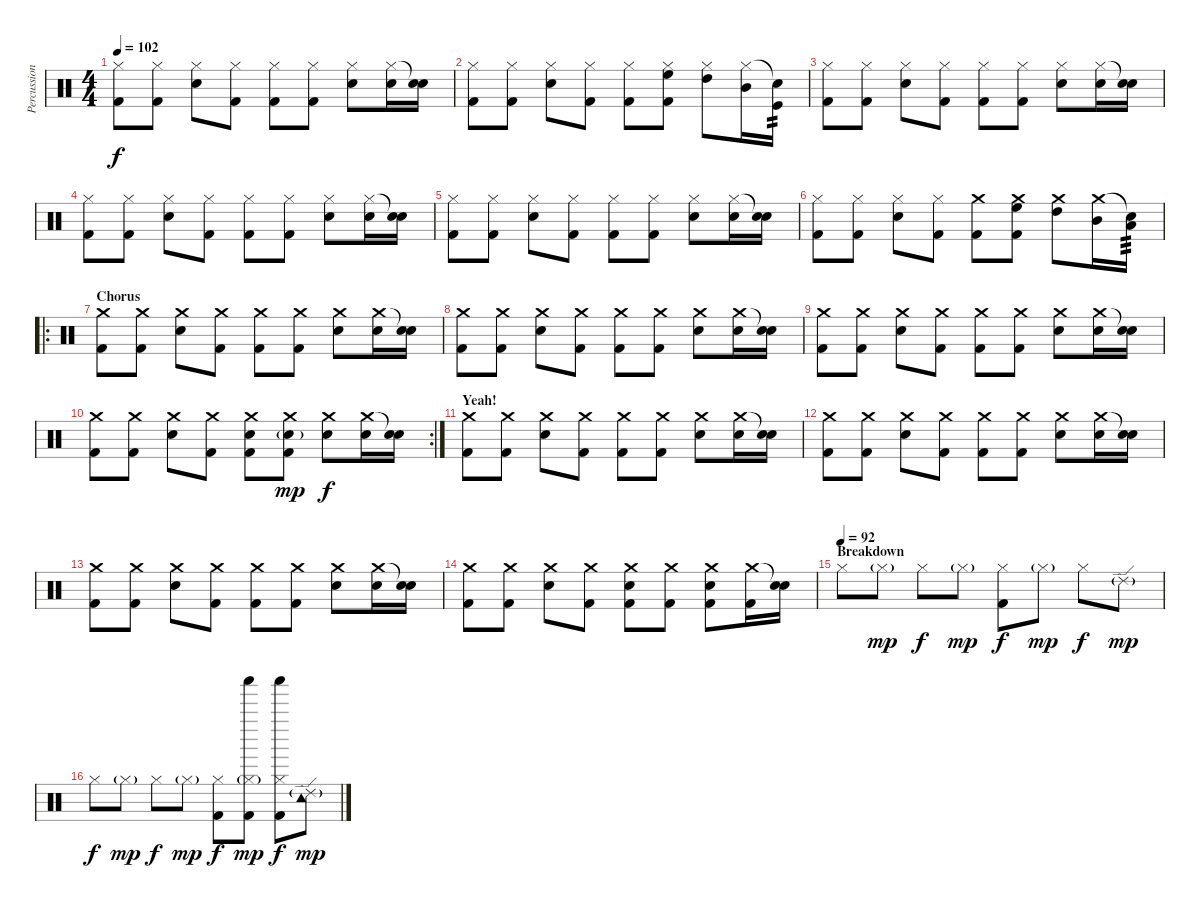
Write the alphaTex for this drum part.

\track ("Percussion" "Percussion") {instrument percussion}
\staff {score}
\articulation defaults
\ts (4 4)
\tempo 102
\clef neutral
\ks c
("Hi-Hat (closed)" "Kick (hit) 2").8{dy f} ("Hi-Hat (closed)" "Kick (hit) 2").8 ("Hi-Hat (closed)" "Snare (hit) 2").8 ("Hi-Hat (closed)" "Kick (hit) 2"{tr (36 16)}).8 ("Hi-Hat (closed)" "Kick (hit) 2").8 ("Hi-Hat (closed)" "Kick (hit) 2").8 ("Hi-Hat (closed)" "Snare (hit) 2").8 ("Hi-Hat (closed)" "Snare (hit) 2").16 ("Snare (hit)"{t} "Snare (hit) 2").16 |
("Hi-Hat (closed)" "Kick (hit) 2").8 ("Hi-Hat (closed)" "Kick (hit) 2").8 ("Hi-Hat (closed)" "Snare (hit) 2").8 ("Hi-Hat (closed)" "Kick (hit) 2"{tr (36 16)}).8 ("Hi-Hat (closed)" "Kick (hit) 2").8 ("Hi-Hat (closed)" "High Floor Tom (hit)" "Kick (hit) 2").8 ("Hi-Hat (closed)" "High Tom (hit)").8 ("Hi-Hat (closed)" "Mid Tom (hit)").16 ("Snare (hit)"{t} "Kick (hit)").16{tp 2} |
("Hi-Hat (closed)" "Kick (hit) 2").8 ("Hi-Hat (closed)" "Kick (hit) 2").8 ("Hi-Hat (closed)" "Snare (hit) 2").8 ("Hi-Hat (closed)" "Kick (hit) 2"{tr (36 16)}).8 ("Hi-Hat (closed)" "Kick (hit) 2").8 ("Hi-Hat (closed)" "Kick (hit) 2").8 ("Hi-Hat (closed)" "Snare (hit) 2").8 ("Hi-Hat (closed)" "Snare (hit) 2").16 ("Snare (hit)"{t} "Snare (hit) 2").16 |
("Hi-Hat (closed)" "Kick (hit) 2").8 ("Hi-Hat (closed)" "Kick (hit) 2").8 ("Hi-Hat (closed)" "Snare (hit) 2").8 ("Hi-Hat (closed)" "Kick (hit) 2"{tr (36 16)}).8 ("Hi-Hat (closed)" "Kick (hit) 2").8 ("Hi-Hat (closed)" "Kick (hit) 2").8 ("Hi-Hat (closed)" "Snare (hit) 2").8 ("Hi-Hat (closed)" "Snare (hit) 2").16 ("Snare (hit)"{t} "Snare (hit) 2").16 |
("Hi-Hat (closed)" "Kick (hit) 2").8 ("Hi-Hat (closed)" "Kick (hit) 2").8 ("Hi-Hat (closed)" "Snare (hit) 2").8 ("Hi-Hat (closed)" "Kick (hit) 2"{tr (36 16)}).8 ("Hi-Hat (closed)" "Kick (hit) 2").8 ("Hi-Hat (closed)" "Kick (hit) 2").8 ("Hi-Hat (closed)" "Snare (hit) 2").8 ("Hi-Hat (closed)" "Snare (hit) 2").16 ("Snare (hit)"{t} "Snare (hit) 2").16 |
("Hi-Hat (closed)" "Kick (hit) 2").8 ("Hi-Hat (closed)" "Kick (hit) 2").8 ("Hi-Hat (closed)" "Snare (hit) 2").8 ("Hi-Hat (closed)" "Kick (hit) 2"{tr (36 16)}).8 ("Crash medium (hit)" "Kick (hit) 2").8 ("Crash medium (hit)" "High Floor Tom (hit)" "Kick (hit) 2").8 ("Crash medium (hit)" "High Tom (hit)").8 ("Crash medium (hit)" "Mid Tom (hit)").16 ("Snare (hit)"{t} "Low Tom (hit)").16{tp 3} |
\ro
\section ("" "Chorus")
("Crash medium (hit)" "Kick (hit) 2").8 ("Crash medium (hit)" "Kick (hit) 2").8 ("Crash medium (hit)" "Snare (hit) 2").8 ("Crash medium (hit)" "Kick (hit) 2"{tr (36 16)}).8 ("Crash medium (hit)" "Kick (hit) 2").8 ("Crash medium (hit)" "Kick (hit) 2").8 ("Crash medium (hit)" "Snare (hit) 2").8 ("Crash medium (hit)" "Snare (hit) 2").16 ("Snare (hit)"{t} "Snare (hit) 2").16 |
("Crash medium (hit)" "Kick (hit) 2").8 ("Crash medium (hit)" "Kick (hit) 2").8 ("Crash medium (hit)" "Snare (hit) 2").8 ("Crash medium (hit)" "Kick (hit) 2"{tr (36 16)}).8 ("Crash medium (hit)" "Kick (hit) 2").8 ("Crash medium (hit)" "Kick (hit) 2").8 ("Crash medium (hit)" "Snare (hit) 2").8 ("Crash medium (hit)" "Snare (hit) 2").16 ("Snare (hit)"{t} "Snare (hit) 2").16 |
("Crash medium (hit)" "Kick (hit) 2").8 ("Crash medium (hit)" "Kick (hit) 2").8 ("Crash medium (hit)" "Snare (hit) 2").8 ("Crash medium (hit)" "Kick (hit) 2"{tr (36 16)}).8 ("Crash medium (hit)" "Kick (hit) 2").8 ("Crash medium (hit)" "Kick (hit) 2").8 ("Crash medium (hit)" "Snare (hit) 2").8 ("Crash medium (hit)" "Snare (hit) 2").16 ("Snare (hit)"{t} "Snare (hit) 2").16 |
\rc 2
("Crash medium (hit)" "Kick (hit) 2").8 ("Crash medium (hit)" "Kick (hit) 2").8 ("Crash medium (hit)" "Snare (hit) 2").8 ("Crash medium (hit)" "Kick (hit) 2"{tr (36 16)}).8 ("Crash medium (hit)" "Snare (hit) 2" "Kick (hit) 2").8 ("Crash medium (hit)" "Snare (hit) 2"{tr (38 16) g} "Kick (hit) 2").8{dy mp} ("Crash medium (hit)" "Snare (hit) 2").8{dy f} ("Crash medium (hit)" "Snare (hit) 2").16 ("Snare (hit)"{t} "Snare (hit) 2").16 |
\section ("" "Yeah!")
("Crash medium (hit)" "Kick (hit) 2").8 ("Crash medium (hit)" "Kick (hit) 2").8 ("Crash medium (hit)" "Snare (hit) 2").8 ("Crash medium (hit)" "Kick (hit) 2"{tr (36 16)}).8 ("Crash medium (hit)" "Kick (hit) 2").8 ("Crash medium (hit)" "Kick (hit) 2").8 ("Crash medium (hit)" "Snare (hit) 2").8 ("Crash medium (hit)" "Snare (hit) 2").16 ("Snare (hit)"{t} "Snare (hit) 2").16 |
("Crash medium (hit)" "Kick (hit) 2").8 ("Crash medium (hit)" "Kick (hit) 2").8 ("Crash medium (hit)" "Snare (hit) 2").8 ("Crash medium (hit)" "Kick (hit) 2"{tr (36 16)}).8 ("Crash medium (hit)" "Kick (hit) 2").8 ("Crash medium (hit)" "Kick (hit) 2").8 ("Crash medium (hit)" "Snare (hit) 2").8 ("Crash medium (hit)" "Snare (hit) 2").16 ("Snare (hit)"{t} "Snare (hit) 2").16 |
("Crash medium (hit)" "Kick (hit) 2").8 ("Crash medium (hit)" "Kick (hit) 2").8 ("Crash medium (hit)" "Snare (hit) 2").8 ("Crash medium (hit)" "Kick (hit) 2"{tr (36 16)}).8 ("Crash medium (hit)" "Kick (hit) 2").8 ("Crash medium (hit)" "Kick (hit) 2").8 ("Crash medium (hit)" "Snare (hit) 2").8 ("Crash medium (hit)" "Snare (hit) 2").16 ("Snare (hit)"{t} "Snare (hit) 2").16 |
("Crash medium (hit)" "Kick (hit) 2").8 ("Crash medium (hit)" "Kick (hit) 2").8 ("Crash medium (hit)" "Snare (hit) 2").8 ("Crash medium (hit)" "Kick (hit) 2"{tr (36 16)}).8 ("Crash medium (hit)" "Snare (hit) 2" "Kick (hit) 2").8 ("Crash medium (hit)" "Kick (hit) 2"{tr (36 16)}).8 ("Crash medium (hit)" "Snare (hit) 2" "Kick (hit) 2").8 ("Crash medium (hit)" "Kick (hit) 2"{tr (36 16)}).16 ("Snare (hit)"{t} "Snare (hit) 2").16 |
\section ("" "Breakdown")
\tempo (92)
"Hi-Hat (closed)".8 "Hi-Hat (closed)"{g}.8{dy mp} "Hi-Hat (closed)".8{dy f} "Hi-Hat (closed)"{g}.8{dy mp} ("Hi-Hat (closed)" "Kick (hit) 2").8{dy f} "Hi-Hat (closed)"{g}.8{dy mp} "Hi-Hat (closed)".8{dy f} "Ride (edge) 2"{g}.8{dy mp} |
"Hi-Hat (closed)".8{dy f} "Hi-Hat (closed)"{g}.8{dy mp} "Hi-Hat (closed)".8{dy f} "Hi-Hat (closed)"{g}.8{dy mp} ("Hi-Hat (closed)" "Kick (hit) 2"{tr (36 16)}).8{dy f} ("Hi-Hat (closed)"{g} "Shaker (hit)" "Kick (hit) 2").8{dy mp} ("Hi-Hat (closed)" "Shaker (hit)" "Kick (hit) 2").8{dy f} ("Ride (edge) 2"{g} "Tambourine (hit)").8{dy mp}
